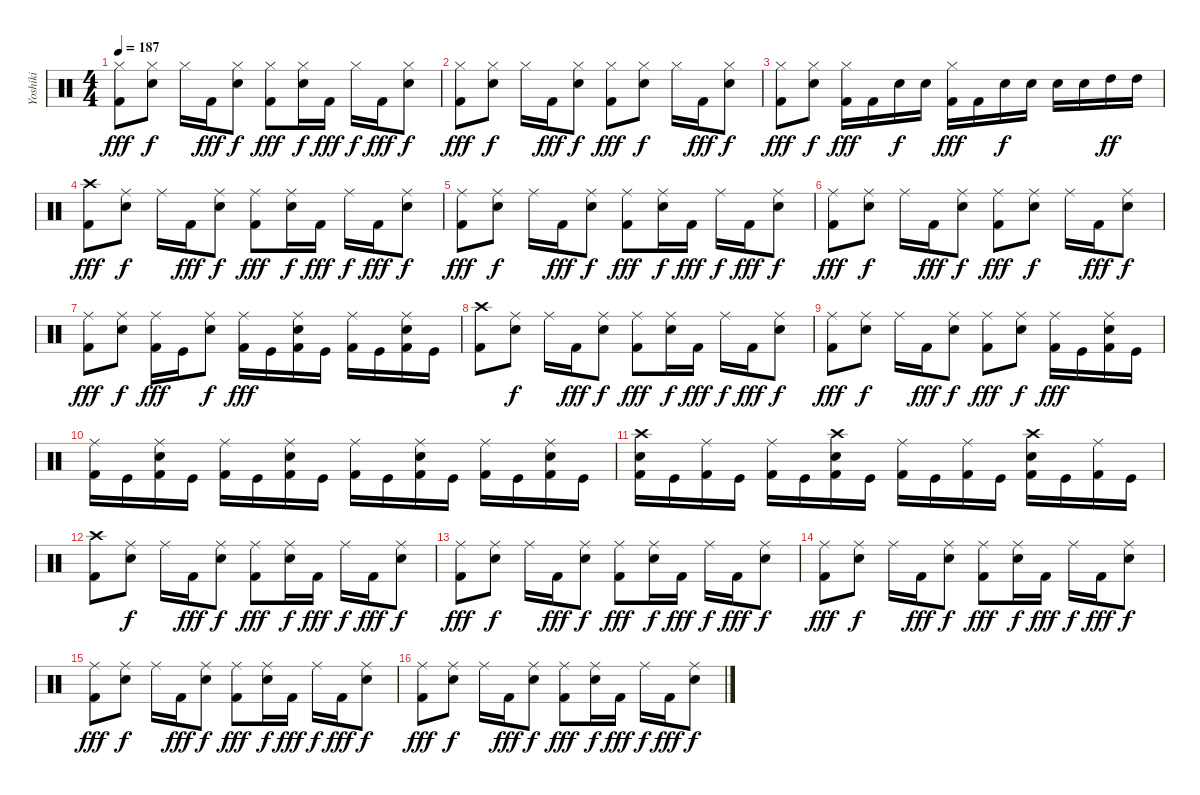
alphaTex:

\track ("Yoshiki" "Yoshiki") {instrument percussion}
\staff {score}
\articulation defaults
\ts (4 4)
\tempo 187
\clef neutral
\ks c
("Hi-Hat (closed)" "Kick (hit) 2").8{dy fff} ("Hi-Hat (closed)" "Electric Snare (hit)").8{dy f} "Hi-Hat (closed)".16 "Kick (hit) 2".16{dy fff} ("Hi-Hat (closed)" "Electric Snare (hit)").8{dy f} ("Hi-Hat (closed)" "Kick (hit) 2").8{dy fff} ("Hi-Hat (closed)" "Electric Snare (hit)").16{dy f} "Kick (hit) 2".16{dy fff} "Hi-Hat (closed)".16{dy f} "Kick (hit) 2".16{dy fff} ("Hi-Hat (closed)" "Electric Snare (hit)").8{dy f} |
("Hi-Hat (closed)" "Kick (hit) 2").8{dy fff} ("Hi-Hat (closed)" "Electric Snare (hit)").8{dy f} "Hi-Hat (closed)".16 "Kick (hit) 2".16{dy fff} ("Hi-Hat (closed)" "Electric Snare (hit)").8{dy f} ("Hi-Hat (closed)" "Kick (hit) 2").8{dy fff} ("Hi-Hat (closed)" "Electric Snare (hit)").8{dy f} "Hi-Hat (closed)".16 "Kick (hit) 2".16{dy fff} ("Hi-Hat (closed)" "Electric Snare (hit)").8{dy f} |
("Hi-Hat (closed)" "Kick (hit) 2").8{dy fff} ("Hi-Hat (closed)" "Electric Snare (hit)").8{dy f} ("Hi-Hat (closed)" "Kick (hit) 2").16{dy fff} "Kick (hit) 2".16 "Electric Snare (hit)".16{dy f} "Electric Snare (hit)".16 ("Hi-Hat (closed)" "Kick (hit) 2").16{dy fff} "Kick (hit) 2".16 "Electric Snare (hit)".16{dy f} "Electric Snare (hit)".16 "Electric Snare (hit)".16 "Electric Snare (hit)".16 "High Tom (hit)".16{dy ff} "High Tom (hit)".16 |
("Crash high (hit)" "Kick (hit) 2").8{dy fff} ("Ride (middle)" "Electric Snare (hit)").8{dy f} "Ride (middle)".16 "Kick (hit) 2".16{dy fff} ("Ride (middle)" "Electric Snare (hit)").8{dy f} ("Ride (middle)" "Kick (hit) 2").8{dy fff} ("Ride (middle)" "Electric Snare (hit)").16{dy f} "Kick (hit) 2".16{dy fff} "Ride (middle)".16{dy f} "Kick (hit) 2".16{dy fff} ("Ride (middle)" "Electric Snare (hit)").8{dy f} |
("Ride (middle)" "Kick (hit) 2").8{dy fff} ("Ride (middle)" "Electric Snare (hit)").8{dy f} "Ride (middle)".16 "Kick (hit) 2".16{dy fff} ("Ride (middle)" "Electric Snare (hit)").8{dy f} ("Ride (middle)" "Kick (hit) 2").8{dy fff} ("Ride (middle)" "Electric Snare (hit)").16{dy f} "Kick (hit) 2".16{dy fff} "Ride (middle)".16{dy f} "Kick (hit) 2".16{dy fff} ("Ride (middle)" "Electric Snare (hit)").8{dy f} |
("Ride (middle)" "Kick (hit) 2").8{dy fff} ("Ride (middle)" "Electric Snare (hit)").8{dy f} "Ride (middle)".16 "Kick (hit) 2".16{dy fff} ("Ride (middle)" "Electric Snare (hit)").8{dy f} ("Ride (middle)" "Kick (hit) 2").8{dy fff} ("Ride (middle)" "Electric Snare (hit)").8{dy f} "Ride (middle)".16 "Kick (hit) 2".16{dy fff} ("Ride (middle)" "Electric Snare (hit)").8{dy f} |
("Ride (middle)" "Kick (hit) 2").8{dy fff} ("Ride (middle)" "Electric Snare (hit)").8{dy f} ("Ride (middle)" "Kick (hit) 2").16{dy fff} "Kick (hit)".16 ("Ride (middle)" "Electric Snare (hit)").8{dy f} ("Ride (middle)" "Kick (hit) 2").16{dy fff} "Kick (hit)".16 ("Ride (middle)" "Electric Snare (hit)" "Kick (hit) 2").16 "Kick (hit)".16 ("Ride (middle)" "Kick (hit) 2").16 "Kick (hit)".16 ("Ride (middle)" "Electric Snare (hit)" "Kick (hit) 2").16 "Kick (hit)".16 |
("Crash high (hit)" "Kick (hit) 2").8 ("Ride (middle)" "Electric Snare (hit)").8{dy f} "Ride (middle)".16 "Kick (hit) 2".16{dy fff} ("Ride (middle)" "Electric Snare (hit)").8{dy f} ("Ride (middle)" "Kick (hit) 2").8{dy fff} ("Ride (middle)" "Electric Snare (hit)").16{dy f} "Kick (hit) 2".16{dy fff} "Ride (middle)".16{dy f} "Kick (hit) 2".16{dy fff} ("Ride (middle)" "Electric Snare (hit)").8{dy f} |
("Ride (middle)" "Kick (hit) 2").8{dy fff} ("Ride (middle)" "Electric Snare (hit)").8{dy f} "Ride (middle)".16 "Kick (hit) 2".16{dy fff} ("Ride (middle)" "Electric Snare (hit)").8{dy f} ("Ride (middle)" "Kick (hit) 2").8{dy fff} ("Ride (middle)" "Electric Snare (hit)").8{dy f} ("Ride (middle)" "Kick (hit) 2").16{dy fff} "Kick (hit)".16 ("Ride (middle)" "Electric Snare (hit)" "Kick (hit) 2").16 "Kick (hit)".16 |
("Ride (middle)" "Kick (hit) 2").16 "Kick (hit)".16 ("Ride (middle)" "Electric Snare (hit)" "Kick (hit) 2").16 "Kick (hit)".16 ("Ride (middle)" "Kick (hit) 2").16 "Kick (hit)".16 ("Ride (middle)" "Electric Snare (hit)" "Kick (hit) 2").16 "Kick (hit)".16 ("Ride (middle)" "Kick (hit) 2").16 "Kick (hit)".16 ("Ride (middle)" "Electric Snare (hit)" "Kick (hit) 2").16 "Kick (hit)".16 ("Ride (middle)" "Kick (hit) 2").16 "Kick (hit)".16 ("Ride (middle)" "Electric Snare (hit)" "Kick (hit) 2").16 "Kick (hit)".16 |
("Crash high (hit)" "Electric Snare (hit)" "Kick (hit) 2").16 "Kick (hit)".16 ("Ride (middle)" "Kick (hit) 2").16 "Kick (hit)".16 ("Ride (middle)" "Kick (hit) 2").16 "Kick (hit)".16 ("Crash high (hit)" "Electric Snare (hit)" "Kick (hit) 2").16 "Kick (hit)".16 ("Ride (middle)" "Kick (hit) 2").16 "Kick (hit)".16 ("Ride (middle)" "Kick (hit) 2").16 "Kick (hit)".16 ("Crash high (hit)" "Electric Snare (hit)" "Kick (hit) 2").16 "Kick (hit)".16 ("Ride (middle)" "Kick (hit) 2").16 "Kick (hit)".16 |
("Crash high (hit)" "Kick (hit) 2").8 ("Ride (middle)" "Electric Snare (hit)").8{dy f} "Ride (middle)".16 "Kick (hit) 2".16{dy fff} ("Ride (middle)" "Electric Snare (hit)").8{dy f} ("Ride (middle)" "Kick (hit) 2").8{dy fff} ("Ride (middle)" "Electric Snare (hit)").16{dy f} "Kick (hit) 2".16{dy fff} "Ride (middle)".16{dy f} "Kick (hit) 2".16{dy fff} ("Ride (middle)" "Electric Snare (hit)").8{dy f} |
("Ride (middle)" "Kick (hit) 2").8{dy fff} ("Ride (middle)" "Electric Snare (hit)").8{dy f} "Ride (middle)".16 "Kick (hit) 2".16{dy fff} ("Ride (middle)" "Electric Snare (hit)").8{dy f} ("Ride (middle)" "Kick (hit) 2").8{dy fff} ("Ride (middle)" "Electric Snare (hit)").16{dy f} "Kick (hit) 2".16{dy fff} "Ride (middle)".16{dy f} "Kick (hit) 2".16{dy fff} ("Ride (middle)" "Electric Snare (hit)").8{dy f} |
("Ride (middle)" "Kick (hit) 2").8{dy fff} ("Ride (middle)" "Electric Snare (hit)").8{dy f} "Ride (middle)".16 "Kick (hit) 2".16{dy fff} ("Ride (middle)" "Electric Snare (hit)").8{dy f} ("Ride (middle)" "Kick (hit) 2").8{dy fff} ("Ride (middle)" "Electric Snare (hit)").16{dy f} "Kick (hit) 2".16{dy fff} "Ride (middle)".16{dy f} "Kick (hit) 2".16{dy fff} ("Ride (middle)" "Electric Snare (hit)").8{dy f} |
("Ride (middle)" "Kick (hit) 2").8{dy fff} ("Ride (middle)" "Electric Snare (hit)").8{dy f} "Ride (middle)".16 "Kick (hit) 2".16{dy fff} ("Ride (middle)" "Electric Snare (hit)").8{dy f} ("Ride (middle)" "Kick (hit) 2").8{dy fff} ("Ride (middle)" "Electric Snare (hit)").16{dy f} "Kick (hit) 2".16{dy fff} "Ride (middle)".16{dy f} "Kick (hit) 2".16{dy fff} ("Ride (middle)" "Electric Snare (hit)").8{dy f} |
("Ride (middle)" "Kick (hit) 2").8{dy fff} ("Ride (middle)" "Electric Snare (hit)").8{dy f} "Ride (middle)".16 "Kick (hit) 2".16{dy fff} ("Ride (middle)" "Electric Snare (hit)").8{dy f} ("Ride (middle)" "Kick (hit) 2").8{dy fff} ("Ride (middle)" "Electric Snare (hit)").16{dy f} "Kick (hit) 2".16{dy fff} "Ride (middle)".16{dy f} "Kick (hit) 2".16{dy fff} ("Ride (middle)" "Electric Snare (hit)").8{dy f}
